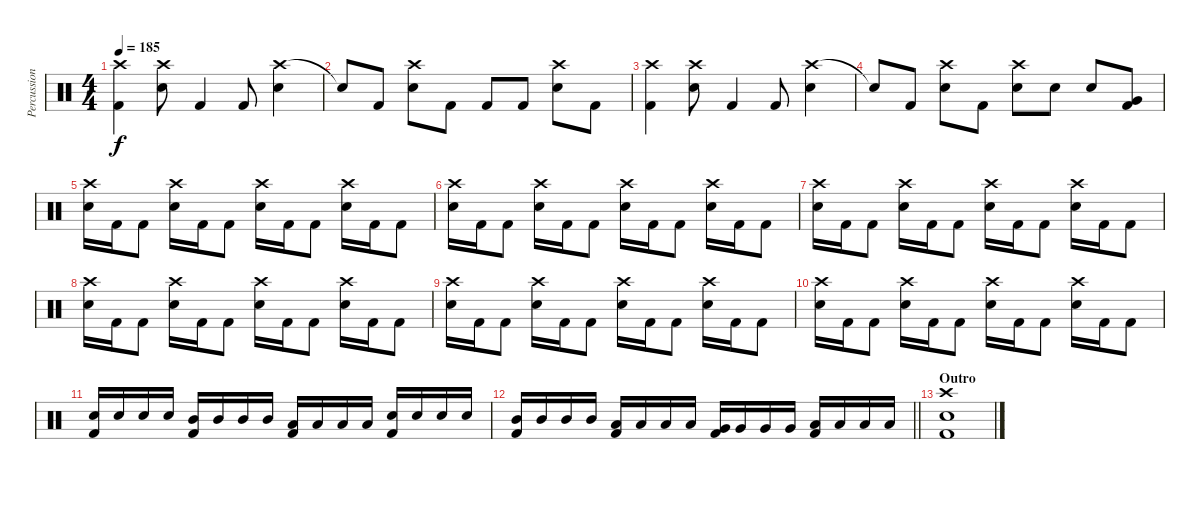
\track ("Percussion" "Percussion") {instrument percussion}
\staff {score}
\articulation defaults
\ts (4 4)
\tempo 185
\clef neutral
\ks c
("Crash high (hit)" "Kick (hit) 2").4{dy f} ("Crash high (hit)" "Snare (hit) 2").8 "Kick (hit) 2".4 "Kick (hit) 2".8 ("Crash high (hit)" "Snare (hit) 2").4 |
"Snare (hit)"{t}.8 "Kick (hit) 2".8 ("Crash high (hit)" "Snare (hit) 2").8 "Kick (hit) 2".8 "Kick (hit) 2".8 "Kick (hit) 2".8 ("Crash high (hit)" "Snare (hit) 2").8 "Kick (hit) 2".8 |
("Crash high (hit)" "Kick (hit) 2").4 ("Crash high (hit)" "Snare (hit) 2").8 "Kick (hit) 2".4 "Kick (hit) 2".8 ("Crash high (hit)" "Snare (hit) 2").4 |
"Snare (hit)"{t}.8 "Kick (hit) 2".8 ("Crash high (hit)" "Snare (hit) 2").8 "Kick (hit) 2".8 ("Crash high (hit)" "Snare (hit) 2").8 "Snare (hit) 2".8 "Snare (hit) 2".8 ("Very Low Tom (hit)" "Kick (hit) 2").8 |
("Crash high (hit)" "Snare (hit) 2").16 "Kick (hit) 2".16 "Kick (hit) 2".8 ("Crash high (hit)" "Snare (hit) 2").16 "Kick (hit) 2".16 "Kick (hit) 2".8 ("Crash high (hit)" "Snare (hit) 2").16 "Kick (hit) 2".16 "Kick (hit) 2".8 ("Crash high (hit)" "Snare (hit) 2").16 "Kick (hit) 2".16 "Kick (hit) 2".8 |
("Crash high (hit)" "Snare (hit) 2").16 "Kick (hit) 2".16 "Kick (hit) 2".8 ("Crash high (hit)" "Snare (hit) 2").16 "Kick (hit) 2".16 "Kick (hit) 2".8 ("Crash high (hit)" "Snare (hit) 2").16 "Kick (hit) 2".16 "Kick (hit) 2".8 ("Crash high (hit)" "Snare (hit) 2").16 "Kick (hit) 2".16 "Kick (hit) 2".8 |
("Crash high (hit)" "Snare (hit) 2").16 "Kick (hit) 2".16 "Kick (hit) 2".8 ("Crash high (hit)" "Snare (hit) 2").16 "Kick (hit) 2".16 "Kick (hit) 2".8 ("Crash high (hit)" "Snare (hit) 2").16 "Kick (hit) 2".16 "Kick (hit) 2".8 ("Crash high (hit)" "Snare (hit) 2").16 "Kick (hit) 2".16 "Kick (hit) 2".8 |
("Crash high (hit)" "Snare (hit) 2").16 "Kick (hit) 2".16 "Kick (hit) 2".8 ("Crash high (hit)" "Snare (hit) 2").16 "Kick (hit) 2".16 "Kick (hit) 2".8 ("Crash high (hit)" "Snare (hit) 2").16 "Kick (hit) 2".16 "Kick (hit) 2".8 ("Crash high (hit)" "Snare (hit) 2").16 "Kick (hit) 2".16 "Kick (hit) 2".8 |
("Crash high (hit)" "Snare (hit) 2").16 "Kick (hit) 2".16 "Kick (hit) 2".8 ("Crash high (hit)" "Snare (hit) 2").16 "Kick (hit) 2".16 "Kick (hit) 2".8 ("Crash high (hit)" "Snare (hit) 2").16 "Kick (hit) 2".16 "Kick (hit) 2".8 ("Crash high (hit)" "Snare (hit) 2").16 "Kick (hit) 2".16 "Kick (hit) 2".8 |
("Crash high (hit)" "Snare (hit) 2").16 "Kick (hit) 2".16 "Kick (hit) 2".8 ("Crash high (hit)" "Snare (hit) 2").16 "Kick (hit) 2".16 "Kick (hit) 2".8 ("Crash high (hit)" "Snare (hit) 2").16 "Kick (hit) 2".16 "Kick (hit) 2".8 ("Crash high (hit)" "Snare (hit) 2").16 "Kick (hit) 2".16 "Kick (hit) 2".8 |
("Snare (hit) 2" "Kick (hit) 2").16 "Snare (hit) 2".16 "Snare (hit) 2".16 "Snare (hit) 2".16 ("Mid Tom (hit)" "Kick (hit) 2").16 "Mid Tom (hit)".16 "Mid Tom (hit)".16 "Mid Tom (hit)".16 ("Low Tom (hit)" "Kick (hit) 2").16 "Low Tom (hit)".16 "Low Tom (hit)".16 "Low Tom (hit)".16 ("Snare (hit) 2" "Kick (hit) 2").16 "Snare (hit) 2".16 "Snare (hit) 2".16 "Snare (hit) 2".16 |
\barLineRight lightlight
("Mid Tom (hit)" "Kick (hit) 2").16 "Mid Tom (hit)".16 "Mid Tom (hit)".16 "Mid Tom (hit)".16 ("Low Tom (hit)" "Kick (hit) 2").16 "Low Tom (hit)".16 "Low Tom (hit)".16 "Low Tom (hit)".16 ("Very Low Tom (hit)" "Kick (hit) 2").16 "Very Low Tom (hit)".16 "Very Low Tom (hit)".16 "Very Low Tom (hit)".16 ("Low Floor Tom (hit)" "Kick (hit) 2").16 "Low Floor Tom (hit)".16 "Low Floor Tom (hit)".16 "Low Floor Tom (hit)".16 |
\section ("" "Outro")
("Crash high (hit)" "Snare (hit) 2" "Kick (hit) 2").1
